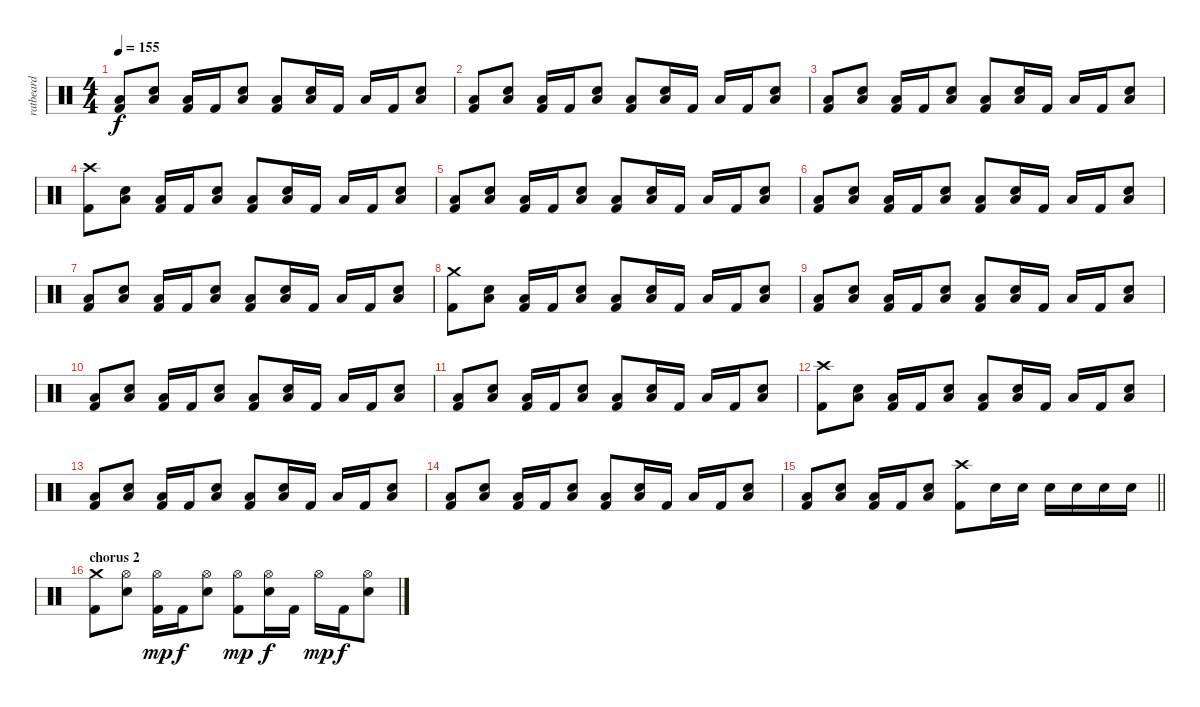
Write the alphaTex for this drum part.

\track ("ratbeard" "ratbeard") {instrument percussion}
\staff {score}
\articulation defaults
\ts (4 4)
\tempo 155
\clef neutral
\ks c
("Low Floor Tom (hit)" "Kick (hit) 2").8{dy f} ("Low Floor Tom (hit)" "Electric Snare (hit)").8 ("Low Floor Tom (hit)" "Kick (hit) 2").16 "Kick (hit) 2".16 ("Low Floor Tom (hit)" "Electric Snare (hit)").8 ("Low Floor Tom (hit)" "Kick (hit) 2").8 ("Low Floor Tom (hit)" "Electric Snare (hit)").16 "Kick (hit) 2".16 "Low Floor Tom (hit)".16 "Kick (hit) 2".16 ("Low Floor Tom (hit)" "Electric Snare (hit)").8 |
("Low Floor Tom (hit)" "Kick (hit) 2").8 ("Low Floor Tom (hit)" "Electric Snare (hit)").8 ("Low Floor Tom (hit)" "Kick (hit) 2").16 "Kick (hit) 2".16 ("Low Floor Tom (hit)" "Electric Snare (hit)").8 ("Low Floor Tom (hit)" "Kick (hit) 2").8 ("Low Floor Tom (hit)" "Electric Snare (hit)").16 "Kick (hit) 2".16 "Low Floor Tom (hit)".16 "Kick (hit) 2".16 ("Low Floor Tom (hit)" "Electric Snare (hit)").8 |
("Low Floor Tom (hit)" "Kick (hit) 2").8 ("Low Floor Tom (hit)" "Electric Snare (hit)").8 ("Low Floor Tom (hit)" "Kick (hit) 2").16 "Kick (hit) 2".16 ("Low Floor Tom (hit)" "Electric Snare (hit)").8 ("Low Floor Tom (hit)" "Kick (hit) 2").8 ("Low Floor Tom (hit)" "Electric Snare (hit)").16 "Kick (hit) 2".16 "Low Floor Tom (hit)".16 "Kick (hit) 2".16 ("Low Floor Tom (hit)" "Electric Snare (hit)").8 |
("Crash high (hit)" "Kick (hit) 2").8 ("Low Floor Tom (hit)" "Electric Snare (hit)").8 ("Low Floor Tom (hit)" "Kick (hit) 2").16 "Kick (hit) 2".16 ("Low Floor Tom (hit)" "Electric Snare (hit)").8 ("Low Floor Tom (hit)" "Kick (hit) 2").8 ("Low Floor Tom (hit)" "Electric Snare (hit)").16 "Kick (hit) 2".16 "Low Floor Tom (hit)".16 "Kick (hit) 2".16 ("Low Floor Tom (hit)" "Electric Snare (hit)").8 |
("Low Floor Tom (hit)" "Kick (hit) 2").8 ("Low Floor Tom (hit)" "Electric Snare (hit)").8 ("Low Floor Tom (hit)" "Kick (hit) 2").16 "Kick (hit) 2".16 ("Low Floor Tom (hit)" "Electric Snare (hit)").8 ("Low Floor Tom (hit)" "Kick (hit) 2").8 ("Low Floor Tom (hit)" "Electric Snare (hit)").16 "Kick (hit) 2".16 "Low Floor Tom (hit)".16 "Kick (hit) 2".16 ("Low Floor Tom (hit)" "Electric Snare (hit)").8 |
("Low Floor Tom (hit)" "Kick (hit) 2").8 ("Low Floor Tom (hit)" "Electric Snare (hit)").8 ("Low Floor Tom (hit)" "Kick (hit) 2").16 "Kick (hit) 2".16 ("Low Floor Tom (hit)" "Electric Snare (hit)").8 ("Low Floor Tom (hit)" "Kick (hit) 2").8 ("Low Floor Tom (hit)" "Electric Snare (hit)").16 "Kick (hit) 2".16 "Low Floor Tom (hit)".16 "Kick (hit) 2".16 ("Low Floor Tom (hit)" "Electric Snare (hit)").8 |
("Low Floor Tom (hit)" "Kick (hit) 2").8 ("Low Floor Tom (hit)" "Electric Snare (hit)").8 ("Low Floor Tom (hit)" "Kick (hit) 2").16 "Kick (hit) 2".16 ("Low Floor Tom (hit)" "Electric Snare (hit)").8 ("Low Floor Tom (hit)" "Kick (hit) 2").8 ("Low Floor Tom (hit)" "Electric Snare (hit)").16 "Kick (hit) 2".16 "Low Floor Tom (hit)".16 "Kick (hit) 2".16 ("Low Floor Tom (hit)" "Electric Snare (hit)").8 |
("Crash medium (hit)" "Kick (hit) 2").8 ("Low Floor Tom (hit)" "Electric Snare (hit)").8 ("Low Floor Tom (hit)" "Kick (hit) 2").16 "Kick (hit) 2".16 ("Low Floor Tom (hit)" "Electric Snare (hit)").8 ("Low Floor Tom (hit)" "Kick (hit) 2").8 ("Low Floor Tom (hit)" "Electric Snare (hit)").16 "Kick (hit) 2".16 "Low Floor Tom (hit)".16 "Kick (hit) 2".16 ("Low Floor Tom (hit)" "Electric Snare (hit)").8 |
("Low Floor Tom (hit)" "Kick (hit) 2").8 ("Low Floor Tom (hit)" "Electric Snare (hit)").8 ("Low Floor Tom (hit)" "Kick (hit) 2").16 "Kick (hit) 2".16 ("Low Floor Tom (hit)" "Electric Snare (hit)").8 ("Low Floor Tom (hit)" "Kick (hit) 2").8 ("Low Floor Tom (hit)" "Electric Snare (hit)").16 "Kick (hit) 2".16 "Low Floor Tom (hit)".16 "Kick (hit) 2".16 ("Low Floor Tom (hit)" "Electric Snare (hit)").8 |
("Low Floor Tom (hit)" "Kick (hit) 2").8 ("Low Floor Tom (hit)" "Electric Snare (hit)").8 ("Low Floor Tom (hit)" "Kick (hit) 2").16 "Kick (hit) 2".16 ("Low Floor Tom (hit)" "Electric Snare (hit)").8 ("Low Floor Tom (hit)" "Kick (hit) 2").8 ("Low Floor Tom (hit)" "Electric Snare (hit)").16 "Kick (hit) 2".16 "Low Floor Tom (hit)".16 "Kick (hit) 2".16 ("Low Floor Tom (hit)" "Electric Snare (hit)").8 |
("Low Floor Tom (hit)" "Kick (hit) 2").8 ("Low Floor Tom (hit)" "Electric Snare (hit)").8 ("Low Floor Tom (hit)" "Kick (hit) 2").16 "Kick (hit) 2".16 ("Low Floor Tom (hit)" "Electric Snare (hit)").8 ("Low Floor Tom (hit)" "Kick (hit) 2").8 ("Low Floor Tom (hit)" "Electric Snare (hit)").16 "Kick (hit) 2".16 "Low Floor Tom (hit)".16 "Kick (hit) 2".16 ("Low Floor Tom (hit)" "Electric Snare (hit)").8 |
("Crash high (hit)" "Kick (hit) 2").8 ("Low Floor Tom (hit)" "Electric Snare (hit)").8 ("Low Floor Tom (hit)" "Kick (hit) 2").16 "Kick (hit) 2".16 ("Low Floor Tom (hit)" "Electric Snare (hit)").8 ("Low Floor Tom (hit)" "Kick (hit) 2").8 ("Low Floor Tom (hit)" "Electric Snare (hit)").16 "Kick (hit) 2".16 "Low Floor Tom (hit)".16 "Kick (hit) 2".16 ("Low Floor Tom (hit)" "Electric Snare (hit)").8 |
("Low Floor Tom (hit)" "Kick (hit) 2").8 ("Low Floor Tom (hit)" "Electric Snare (hit)").8 ("Low Floor Tom (hit)" "Kick (hit) 2").16 "Kick (hit) 2".16 ("Low Floor Tom (hit)" "Electric Snare (hit)").8 ("Low Floor Tom (hit)" "Kick (hit) 2").8 ("Low Floor Tom (hit)" "Electric Snare (hit)").16 "Kick (hit) 2".16 "Low Floor Tom (hit)".16 "Kick (hit) 2".16 ("Low Floor Tom (hit)" "Electric Snare (hit)").8 |
("Low Floor Tom (hit)" "Kick (hit) 2").8 ("Low Floor Tom (hit)" "Electric Snare (hit)").8 ("Low Floor Tom (hit)" "Kick (hit) 2").16 "Kick (hit) 2".16 ("Low Floor Tom (hit)" "Electric Snare (hit)").8 ("Low Floor Tom (hit)" "Kick (hit) 2").8 ("Low Floor Tom (hit)" "Electric Snare (hit)").16 "Kick (hit) 2".16 "Low Floor Tom (hit)".16 "Kick (hit) 2".16 ("Low Floor Tom (hit)" "Electric Snare (hit)").8 |
\barLineRight lightlight
("Low Floor Tom (hit)" "Kick (hit) 2").8 ("Low Floor Tom (hit)" "Electric Snare (hit)").8 ("Low Floor Tom (hit)" "Kick (hit) 2").16 "Kick (hit) 2".16 ("Low Floor Tom (hit)" "Electric Snare (hit)").8 ("Crash high (hit)" "Kick (hit) 2").8 "Electric Snare (hit)".16 "Electric Snare (hit)".16 "Electric Snare (hit)".16 "Electric Snare (hit)".16 "Electric Snare (hit)".16 "Electric Snare (hit)".16 |
\section ("" "chorus 2")
("Crash medium (hit)" "Kick (hit) 2").8 ("Hi-Hat (open)" "Electric Snare (hit)").8 ("Hi-Hat (open)" "Kick (hit) 2").16{dy mp} "Kick (hit) 2".16{dy f} ("Hi-Hat (open)" "Electric Snare (hit)").8 ("Hi-Hat (open)" "Kick (hit) 2").8{dy mp} ("Hi-Hat (open)" "Electric Snare (hit)").16{dy f} "Kick (hit) 2".16 "Hi-Hat (open)".16{dy mp} "Kick (hit) 2".16{dy f} ("Hi-Hat (open)" "Electric Snare (hit)").8
